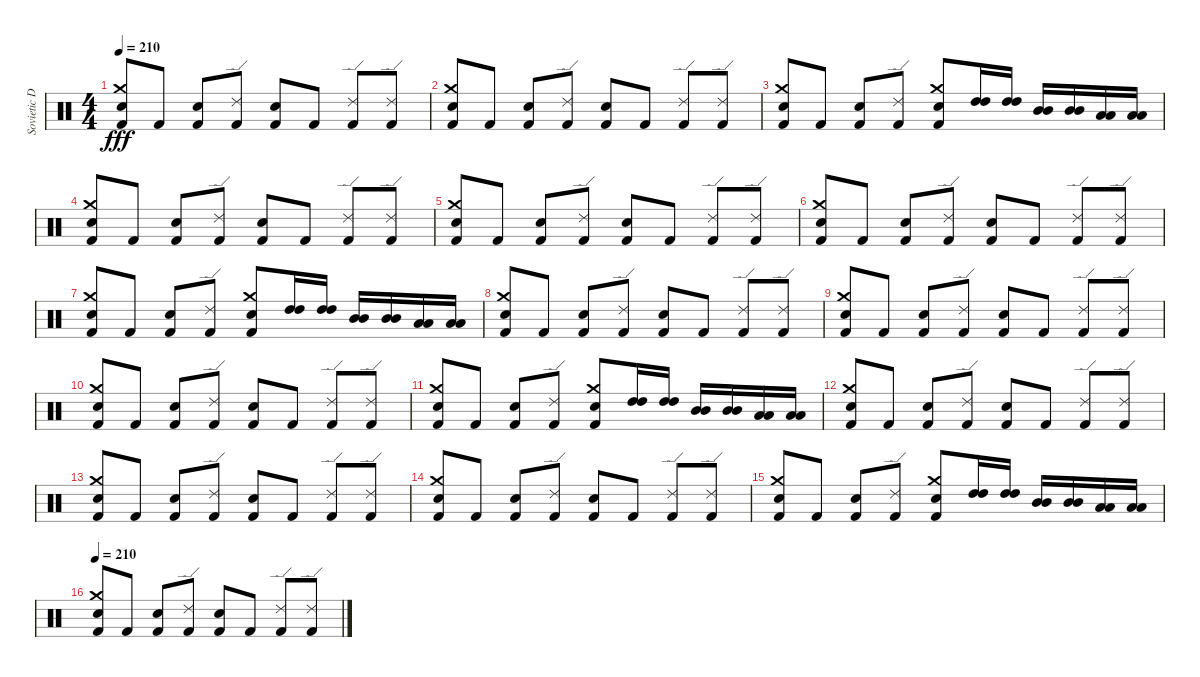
\track ("Sovietic Drummer" "Sovietic D") {instrument percussion}
\staff {score}
\articulation defaults
\ts (4 4)
\tempo 210
\clef neutral
\ks c
("Electric Snare (hit)" "Crash medium (hit)" "Kick (hit) 2").8{dy fff} "Kick (hit) 2".8 ("Electric Snare (hit)" "Kick (hit) 2").8 ("Ride (edge) 2" "Kick (hit) 2").8 ("Electric Snare (hit)" "Kick (hit) 2").8 "Kick (hit) 2".8 ("Ride (edge) 2" "Kick (hit) 2").8 ("Ride (edge) 2" "Kick (hit) 2").8 |
("Electric Snare (hit)" "Crash medium (hit)" "Kick (hit) 2").8 "Kick (hit) 2".8 ("Electric Snare (hit)" "Kick (hit) 2").8 ("Ride (edge) 2" "Kick (hit) 2").8 ("Electric Snare (hit)" "Kick (hit) 2").8 "Kick (hit) 2".8 ("Ride (edge) 2" "Kick (hit) 2").8 ("Ride (edge) 2" "Kick (hit) 2").8 |
("Electric Snare (hit)" "Crash medium (hit)" "Kick (hit) 2").8 "Kick (hit) 2".8 ("Electric Snare (hit)" "Kick (hit) 2").8 ("Ride (edge) 2" "Kick (hit) 2").8 ("Crash medium (hit)" "Electric Snare (hit)" "Kick (hit) 2").8 ("High Tom (hit)" "High Tom (hit)").16 ("High Tom (hit)" "High Tom (hit)").16 ("Mid Tom (hit)" "Mid Tom (hit)").16 ("Mid Tom (hit)" "Mid Tom (hit)").16 ("Low Tom (hit)" "Low Tom (hit)").16 ("Low Tom (hit)" "Low Tom (hit)").16 |
("Electric Snare (hit)" "Crash medium (hit)" "Kick (hit) 2").8 "Kick (hit) 2".8 ("Electric Snare (hit)" "Kick (hit) 2").8 ("Ride (edge) 2" "Kick (hit) 2").8 ("Electric Snare (hit)" "Kick (hit) 2").8 "Kick (hit) 2".8 ("Ride (edge) 2" "Kick (hit) 2").8 ("Ride (edge) 2" "Kick (hit) 2").8 |
("Electric Snare (hit)" "Crash medium (hit)" "Kick (hit) 2").8 "Kick (hit) 2".8 ("Electric Snare (hit)" "Kick (hit) 2").8 ("Ride (edge) 2" "Kick (hit) 2").8 ("Electric Snare (hit)" "Kick (hit) 2").8 "Kick (hit) 2".8 ("Ride (edge) 2" "Kick (hit) 2").8 ("Ride (edge) 2" "Kick (hit) 2").8 |
("Electric Snare (hit)" "Crash medium (hit)" "Kick (hit) 2").8 "Kick (hit) 2".8 ("Electric Snare (hit)" "Kick (hit) 2").8 ("Ride (edge) 2" "Kick (hit) 2").8 ("Electric Snare (hit)" "Kick (hit) 2").8 "Kick (hit) 2".8 ("Ride (edge) 2" "Kick (hit) 2").8 ("Ride (edge) 2" "Kick (hit) 2").8 |
("Electric Snare (hit)" "Crash medium (hit)" "Kick (hit) 2").8 "Kick (hit) 2".8 ("Electric Snare (hit)" "Kick (hit) 2").8 ("Ride (edge) 2" "Kick (hit) 2").8 ("Crash medium (hit)" "Electric Snare (hit)" "Kick (hit) 2").8 ("High Tom (hit)" "High Tom (hit)").16 ("High Tom (hit)" "High Tom (hit)").16 ("Mid Tom (hit)" "Mid Tom (hit)").16 ("Mid Tom (hit)" "Mid Tom (hit)").16 ("Low Tom (hit)" "Low Tom (hit)").16 ("Low Tom (hit)" "Low Tom (hit)").16 |
("Electric Snare (hit)" "Crash medium (hit)" "Kick (hit) 2").8 "Kick (hit) 2".8 ("Electric Snare (hit)" "Kick (hit) 2").8 ("Ride (edge) 2" "Kick (hit) 2").8 ("Electric Snare (hit)" "Kick (hit) 2").8 "Kick (hit) 2".8 ("Ride (edge) 2" "Kick (hit) 2").8 ("Ride (edge) 2" "Kick (hit) 2").8 |
("Electric Snare (hit)" "Crash medium (hit)" "Kick (hit) 2").8 "Kick (hit) 2".8 ("Electric Snare (hit)" "Kick (hit) 2").8 ("Ride (edge) 2" "Kick (hit) 2").8 ("Electric Snare (hit)" "Kick (hit) 2").8 "Kick (hit) 2".8 ("Ride (edge) 2" "Kick (hit) 2").8 ("Ride (edge) 2" "Kick (hit) 2").8 |
("Electric Snare (hit)" "Crash medium (hit)" "Kick (hit) 2").8 "Kick (hit) 2".8 ("Electric Snare (hit)" "Kick (hit) 2").8 ("Ride (edge) 2" "Kick (hit) 2").8 ("Electric Snare (hit)" "Kick (hit) 2").8 "Kick (hit) 2".8 ("Ride (edge) 2" "Kick (hit) 2").8 ("Ride (edge) 2" "Kick (hit) 2").8 |
("Electric Snare (hit)" "Crash medium (hit)" "Kick (hit) 2").8 "Kick (hit) 2".8 ("Electric Snare (hit)" "Kick (hit) 2").8 ("Ride (edge) 2" "Kick (hit) 2").8 ("Crash medium (hit)" "Electric Snare (hit)" "Kick (hit) 2").8 ("High Tom (hit)" "High Tom (hit)").16 ("High Tom (hit)" "High Tom (hit)").16 ("Mid Tom (hit)" "Mid Tom (hit)").16 ("Mid Tom (hit)" "Mid Tom (hit)").16 ("Low Tom (hit)" "Low Tom (hit)").16 ("Low Tom (hit)" "Low Tom (hit)").16 |
("Electric Snare (hit)" "Crash medium (hit)" "Kick (hit) 2").8 "Kick (hit) 2".8 ("Electric Snare (hit)" "Kick (hit) 2").8 ("Ride (edge) 2" "Kick (hit) 2").8 ("Electric Snare (hit)" "Kick (hit) 2").8 "Kick (hit) 2".8 ("Ride (edge) 2" "Kick (hit) 2").8 ("Ride (edge) 2" "Kick (hit) 2").8 |
("Electric Snare (hit)" "Crash medium (hit)" "Kick (hit) 2").8 "Kick (hit) 2".8 ("Electric Snare (hit)" "Kick (hit) 2").8 ("Ride (edge) 2" "Kick (hit) 2").8 ("Electric Snare (hit)" "Kick (hit) 2").8 "Kick (hit) 2".8 ("Ride (edge) 2" "Kick (hit) 2").8 ("Ride (edge) 2" "Kick (hit) 2").8 |
("Electric Snare (hit)" "Crash medium (hit)" "Kick (hit) 2").8 "Kick (hit) 2".8 ("Electric Snare (hit)" "Kick (hit) 2").8 ("Ride (edge) 2" "Kick (hit) 2").8 ("Electric Snare (hit)" "Kick (hit) 2").8 "Kick (hit) 2".8 ("Ride (edge) 2" "Kick (hit) 2").8 ("Ride (edge) 2" "Kick (hit) 2").8 |
("Electric Snare (hit)" "Crash medium (hit)" "Kick (hit) 2").8 "Kick (hit) 2".8 ("Electric Snare (hit)" "Kick (hit) 2").8 ("Ride (edge) 2" "Kick (hit) 2").8 ("Crash medium (hit)" "Electric Snare (hit)" "Kick (hit) 2").8 ("High Tom (hit)" "High Tom (hit)").16 ("High Tom (hit)" "High Tom (hit)").16 ("Mid Tom (hit)" "Mid Tom (hit)").16 ("Mid Tom (hit)" "Mid Tom (hit)").16 ("Low Tom (hit)" "Low Tom (hit)").16 ("Low Tom (hit)" "Low Tom (hit)").16 |
\tempo 210
("Electric Snare (hit)" "Crash medium (hit)" "Kick (hit) 2").8 "Kick (hit) 2".8 ("Electric Snare (hit)" "Kick (hit) 2").8 ("Ride (edge) 2" "Kick (hit) 2").8 ("Electric Snare (hit)" "Kick (hit) 2").8 "Kick (hit) 2".8 ("Ride (edge) 2" "Kick (hit) 2").8 ("Ride (edge) 2" "Kick (hit) 2").8
